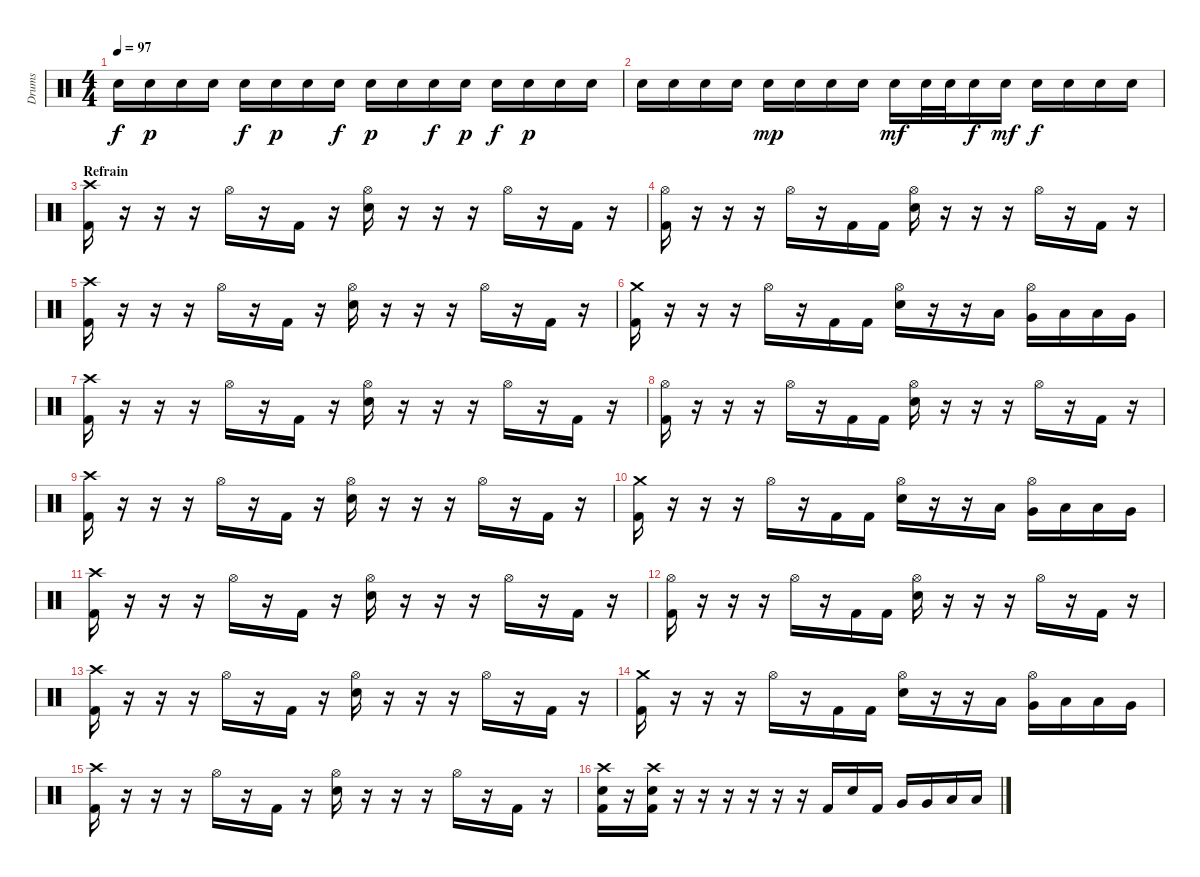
\track ("Drums" "Drums") {instrument percussion}
\staff {score}
\articulation defaults
\ts (4 4)
\tempo 97
\clef neutral
\ks c "Electric Snare (hit)".16{dy f} "Electric Snare (hit)".16{dy p} "Electric Snare (hit)".16 "Electric Snare (hit)".16 "Electric Snare (hit)".16{dy f} "Electric Snare (hit)".16{dy p} "Electric Snare (hit)".16 "Electric Snare (hit)".16{dy f} "Electric Snare (hit)".16{dy p} "Electric Snare (hit)".16 "Electric Snare (hit)".16{dy f} "Electric Snare (hit)".16{dy p} "Electric Snare (hit)".16{dy f} "Electric Snare (hit)".16{dy p} "Electric Snare (hit)".16 "Electric Snare (hit)".16
|
"Electric Snare (hit)".16 "Electric Snare (hit)".16 "Electric Snare (hit)".16 "Electric Snare (hit)".16 "Electric Snare (hit)".16{dy mp} "Electric Snare (hit)".16 "Electric Snare (hit)".16 "Electric Snare (hit)".16 "Electric Snare (hit)".16{dy mf} "Electric Snare (hit)".32 "Electric Snare (hit)".32 "Electric Snare (hit)".16{dy f} "Electric Snare (hit)".16{dy mf} "Electric Snare (hit)".16{dy f} "Electric Snare (hit)".16 "Electric Snare (hit)".16 "Electric Snare (hit)".16 |
\section ("" "Refrain")
("Kick (hit) 2" "Crash high (hit)").16 r.16 r.16 r.16 "Hi-Hat (open)".16 r.16 "Kick (hit) 2".16 r.16 ("Electric Snare (hit)" "Hi-Hat (open)").16 r.16 r.16 r.16 "Hi-Hat (open)".16 r.16 "Kick (hit) 2".16 r.16 |
("Kick (hit) 2" "Hi-Hat (open)").16 r.16 r.16 r.16 "Hi-Hat (open)".16 r.16 "Kick (hit) 2".16 "Kick (hit) 2".16 ("Electric Snare (hit)" "Hi-Hat (open)").16 r.16 r.16 r.16 "Hi-Hat (open)".16 r.16 "Kick (hit) 2".16 r.16 |
("Kick (hit) 2" "Crash high (hit)").16 r.16 r.16 r.16 "Hi-Hat (open)".16 r.16 "Kick (hit) 2".16 r.16 ("Electric Snare (hit)" "Hi-Hat (open)").16 r.16 r.16 r.16 "Hi-Hat (open)".16 r.16 "Kick (hit) 2".16 r.16 |
("Kick (hit) 2" "Crash medium (hit)").16 r.16 r.16 r.16 "Hi-Hat (open)".16 r.16 "Kick (hit) 2".16 "Kick (hit) 2".16 ("Electric Snare (hit)" "Hi-Hat (open)").16 r.16 r.16 "Low Tom (hit)".16 ("Very Low Tom (hit)" "Hi-Hat (open)").16 "Low Floor Tom (hit)".16 "Low Floor Tom (hit)".16 "Very Low Tom (hit)".16 |
("Kick (hit) 2" "Crash high (hit)").16 r.16 r.16 r.16 "Hi-Hat (open)".16 r.16 "Kick (hit) 2".16 r.16 ("Electric Snare (hit)" "Hi-Hat (open)").16 r.16 r.16 r.16 "Hi-Hat (open)".16 r.16 "Kick (hit) 2".16 r.16 |
("Kick (hit) 2" "Hi-Hat (open)").16 r.16 r.16 r.16 "Hi-Hat (open)".16 r.16 "Kick (hit) 2".16 "Kick (hit) 2".16 ("Electric Snare (hit)" "Hi-Hat (open)").16 r.16 r.16 r.16 "Hi-Hat (open)".16 r.16 "Kick (hit) 2".16 r.16 |
("Kick (hit) 2" "Crash high (hit)").16 r.16 r.16 r.16 "Hi-Hat (open)".16 r.16 "Kick (hit) 2".16 r.16 ("Electric Snare (hit)" "Hi-Hat (open)").16 r.16 r.16 r.16 "Hi-Hat (open)".16 r.16 "Kick (hit) 2".16 r.16 |
("Kick (hit) 2" "Crash medium (hit)").16 r.16 r.16 r.16 "Hi-Hat (open)".16 r.16 "Kick (hit) 2".16 "Kick (hit) 2".16 ("Electric Snare (hit)" "Hi-Hat (open)").16 r.16 r.16 "Low Tom (hit)".16 ("Very Low Tom (hit)" "Hi-Hat (open)").16 "Low Floor Tom (hit)".16 "Low Floor Tom (hit)".16 "Very Low Tom (hit)".16 |
("Kick (hit) 2" "Crash high (hit)").16 r.16 r.16 r.16 "Hi-Hat (open)".16 r.16 "Kick (hit) 2".16 r.16 ("Electric Snare (hit)" "Hi-Hat (open)").16 r.16 r.16 r.16 "Hi-Hat (open)".16 r.16 "Kick (hit) 2".16 r.16 |
("Kick (hit) 2" "Hi-Hat (open)").16 r.16 r.16 r.16 "Hi-Hat (open)".16 r.16 "Kick (hit) 2".16 "Kick (hit) 2".16 ("Electric Snare (hit)" "Hi-Hat (open)").16 r.16 r.16 r.16 "Hi-Hat (open)".16 r.16 "Kick (hit) 2".16 r.16 |
("Kick (hit) 2" "Crash high (hit)").16 r.16 r.16 r.16 "Hi-Hat (open)".16 r.16 "Kick (hit) 2".16 r.16 ("Electric Snare (hit)" "Hi-Hat (open)").16 r.16 r.16 r.16 "Hi-Hat (open)".16 r.16 "Kick (hit) 2".16 r.16 |
("Kick (hit) 2" "Crash medium (hit)").16 r.16 r.16 r.16 "Hi-Hat (open)".16 r.16 "Kick (hit) 2".16 "Kick (hit) 2".16 ("Electric Snare (hit)" "Hi-Hat (open)").16 r.16 r.16 "Low Tom (hit)".16 ("Very Low Tom (hit)" "Hi-Hat (open)").16 "Low Floor Tom (hit)".16 "Low Floor Tom (hit)".16 "Very Low Tom (hit)".16 |
("Kick (hit) 2" "Crash high (hit)").16 r.16 r.16 r.16 "Hi-Hat (open)".16 r.16 "Kick (hit) 2".16 r.16 ("Electric Snare (hit)" "Hi-Hat (open)").16 r.16 r.16 r.16 "Hi-Hat (open)".16 r.16 "Kick (hit) 2".16 r.16 |
("Kick (hit) 2" "Electric Snare (hit)" "Crash high (hit)").16 r.16 ("Kick (hit) 2" "Electric Snare (hit)" "Crash high (hit)").16 r.16 r.16 r.16 r.16 r.16 r.16 "Kick (hit) 2".16 "Electric Snare (hit)".16 "Kick (hit) 2".16 "Very Low Tom (hit)".16 "Very Low Tom (hit)".16 "Low Floor Tom (hit)".16 "Low Floor Tom (hit)".16
